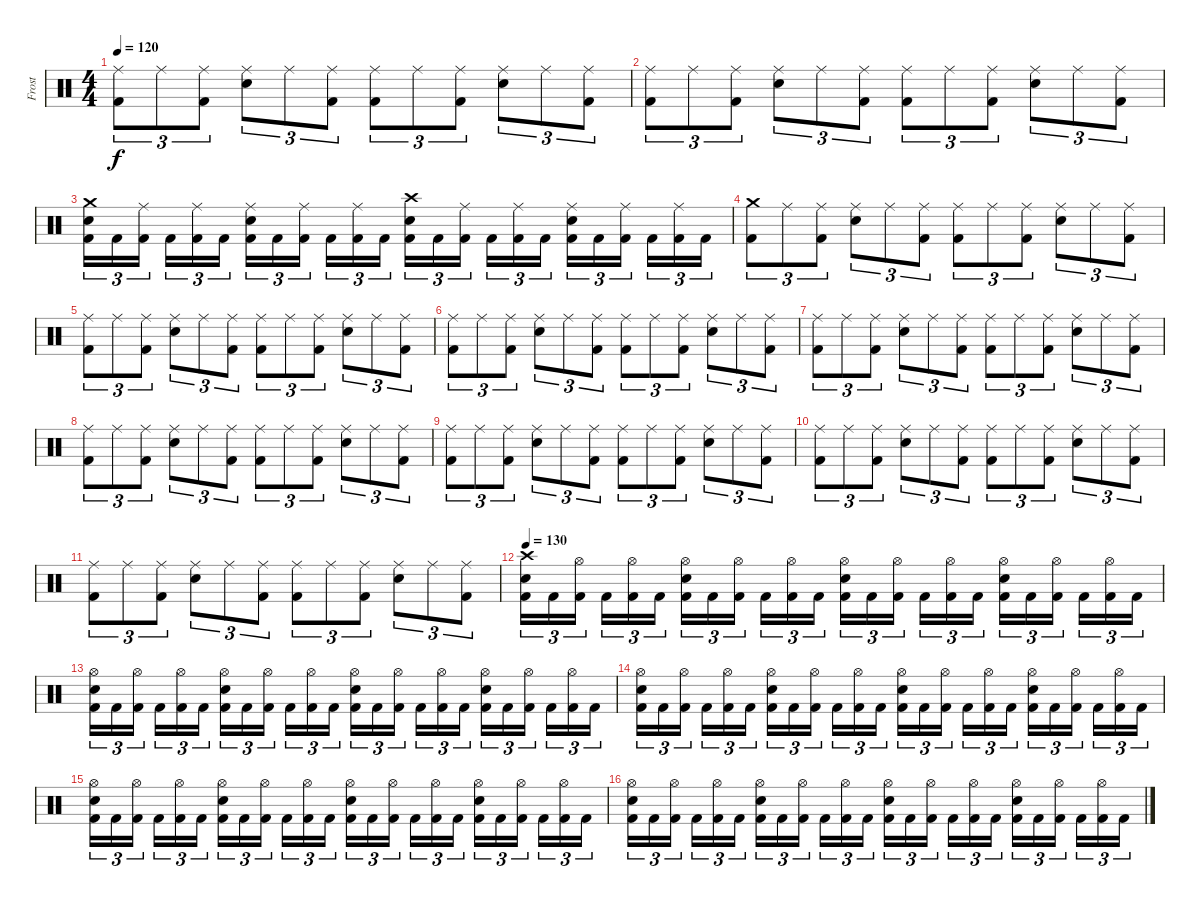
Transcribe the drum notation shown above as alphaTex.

\track ("Frost" "Frost") {instrument percussion}
\staff {score}
\articulation defaults
\ts (4 4)
\tempo 120
\clef neutral
\ks c
("Ride (middle)" "Kick (hit) 2").8{tu (3 2) dy f} "Ride (middle)".8{tu (3 2)} ("Ride (middle)" "Kick (hit) 2").8{tu (3 2)} ("Ride (middle)" "Electric Snare (hit)").8{tu (3 2)} "Ride (middle)".8{tu (3 2)} ("Ride (middle)" "Kick (hit) 2").8{tu (3 2)} ("Ride (middle)" "Kick (hit) 2").8{tu (3 2)} "Ride (middle)".8{tu (3 2)} ("Ride (middle)" "Kick (hit) 2").8{tu (3 2)} ("Ride (middle)" "Electric Snare (hit)").8{tu (3 2)} "Ride (middle)".8{tu (3 2)} ("Ride (middle)" "Kick (hit) 2").8{tu (3 2)} |
("Ride (middle)" "Kick (hit) 2").8{tu (3 2)} "Ride (middle)".8{tu (3 2)} ("Ride (middle)" "Kick (hit) 2").8{tu (3 2)} ("Ride (middle)" "Electric Snare (hit)").8{tu (3 2)} "Ride (middle)".8{tu (3 2)} ("Ride (middle)" "Kick (hit) 2").8{tu (3 2)} ("Ride (middle)" "Kick (hit) 2").8{tu (3 2)} "Ride (middle)".8{tu (3 2)} ("Ride (middle)" "Kick (hit) 2").8{tu (3 2)} ("Ride (middle)" "Electric Snare (hit)").8{tu (3 2)} "Ride (middle)".8{tu (3 2)} ("Ride (middle)" "Kick (hit) 2").8{tu (3 2)} |
("Crash medium (hit)" "Electric Snare (hit)" "Kick (hit) 2").16{tu (3 2)} "Kick (hit) 2".16{tu (3 2)} ("Ride (middle)" "Kick (hit) 2").16{tu (3 2)} "Kick (hit) 2".16{tu (3 2)} ("Ride (middle)" "Kick (hit) 2").16{tu (3 2)} "Kick (hit) 2".16{tu (3 2)} ("Ride (middle)" "Electric Snare (hit)" "Kick (hit) 2").16{tu (3 2)} "Kick (hit) 2".16{tu (3 2)} ("Ride (middle)" "Kick (hit) 2").16{tu (3 2)} "Kick (hit) 2".16{tu (3 2)} ("Ride (middle)" "Kick (hit) 2").16{tu (3 2)} "Kick (hit) 2".16{tu (3 2)} ("Crash high (hit)" "Electric Snare (hit)" "Kick (hit) 2").16{tu (3 2)} "Kick (hit) 2".16{tu (3 2)} ("Ride (middle)" "Kick (hit) 2").16{tu (3 2)} "Kick (hit) 2".16{tu (3 2)} ("Ride (middle)" "Kick (hit) 2").16{tu (3 2)} "Kick (hit) 2".16{tu (3 2)} ("Ride (middle)" "Electric Snare (hit)" "Kick (hit) 2").16{tu (3 2)} "Kick (hit) 2".16{tu (3 2)} ("Ride (middle)" "Kick (hit) 2").16{tu (3 2)} "Kick (hit) 2".16{tu (3 2)} ("Ride (middle)" "Kick (hit) 2").16{tu (3 2)} "Kick (hit) 2".16{tu (3 2)} |
("Crash medium (hit)" "Kick (hit) 2").8{tu (3 2)} "Ride (middle)".8{tu (3 2)} ("Ride (middle)" "Kick (hit) 2").8{tu (3 2)} ("Ride (middle)" "Electric Snare (hit)").8{tu (3 2)} "Ride (middle)".8{tu (3 2)} ("Ride (middle)" "Kick (hit) 2").8{tu (3 2)} ("Ride (middle)" "Kick (hit) 2").8{tu (3 2)} "Ride (middle)".8{tu (3 2)} ("Ride (middle)" "Kick (hit) 2").8{tu (3 2)} ("Ride (middle)" "Electric Snare (hit)").8{tu (3 2)} "Ride (middle)".8{tu (3 2)} ("Ride (middle)" "Kick (hit) 2").8{tu (3 2)} |
("Ride (middle)" "Kick (hit) 2").8{tu (3 2)} "Ride (middle)".8{tu (3 2)} ("Ride (middle)" "Kick (hit) 2").8{tu (3 2)} ("Ride (middle)" "Electric Snare (hit)").8{tu (3 2)} "Ride (middle)".8{tu (3 2)} ("Ride (middle)" "Kick (hit) 2").8{tu (3 2)} ("Ride (middle)" "Kick (hit) 2").8{tu (3 2)} "Ride (middle)".8{tu (3 2)} ("Ride (middle)" "Kick (hit) 2").8{tu (3 2)} ("Ride (middle)" "Electric Snare (hit)").8{tu (3 2)} "Ride (middle)".8{tu (3 2)} ("Ride (middle)" "Kick (hit) 2").8{tu (3 2)} |
("Ride (middle)" "Kick (hit) 2").8{tu (3 2)} "Ride (middle)".8{tu (3 2)} ("Ride (middle)" "Kick (hit) 2").8{tu (3 2)} ("Ride (middle)" "Electric Snare (hit)").8{tu (3 2)} "Ride (middle)".8{tu (3 2)} ("Ride (middle)" "Kick (hit) 2").8{tu (3 2)} ("Ride (middle)" "Kick (hit) 2").8{tu (3 2)} "Ride (middle)".8{tu (3 2)} ("Ride (middle)" "Kick (hit) 2").8{tu (3 2)} ("Ride (middle)" "Electric Snare (hit)").8{tu (3 2)} "Ride (middle)".8{tu (3 2)} ("Ride (middle)" "Kick (hit) 2").8{tu (3 2)} |
("Ride (middle)" "Kick (hit) 2").8{tu (3 2)} "Ride (middle)".8{tu (3 2)} ("Ride (middle)" "Kick (hit) 2").8{tu (3 2)} ("Ride (middle)" "Electric Snare (hit)").8{tu (3 2)} "Ride (middle)".8{tu (3 2)} ("Ride (middle)" "Kick (hit) 2").8{tu (3 2)} ("Ride (middle)" "Kick (hit) 2").8{tu (3 2)} "Ride (middle)".8{tu (3 2)} ("Ride (middle)" "Kick (hit) 2").8{tu (3 2)} ("Ride (middle)" "Electric Snare (hit)").8{tu (3 2)} "Ride (middle)".8{tu (3 2)} ("Ride (middle)" "Kick (hit) 2").8{tu (3 2)} |
("Ride (middle)" "Kick (hit) 2").8{tu (3 2)} "Ride (middle)".8{tu (3 2)} ("Ride (middle)" "Kick (hit) 2").8{tu (3 2)} ("Ride (middle)" "Electric Snare (hit)").8{tu (3 2)} "Ride (middle)".8{tu (3 2)} ("Ride (middle)" "Kick (hit) 2").8{tu (3 2)} ("Ride (middle)" "Kick (hit) 2").8{tu (3 2)} "Ride (middle)".8{tu (3 2)} ("Ride (middle)" "Kick (hit) 2").8{tu (3 2)} ("Ride (middle)" "Electric Snare (hit)").8{tu (3 2)} "Ride (middle)".8{tu (3 2)} ("Ride (middle)" "Kick (hit) 2").8{tu (3 2)} |
("Ride (middle)" "Kick (hit) 2").8{tu (3 2)} "Ride (middle)".8{tu (3 2)} ("Ride (middle)" "Kick (hit) 2").8{tu (3 2)} ("Ride (middle)" "Electric Snare (hit)").8{tu (3 2)} "Ride (middle)".8{tu (3 2)} ("Ride (middle)" "Kick (hit) 2").8{tu (3 2)} ("Ride (middle)" "Kick (hit) 2").8{tu (3 2)} "Ride (middle)".8{tu (3 2)} ("Ride (middle)" "Kick (hit) 2").8{tu (3 2)} ("Ride (middle)" "Electric Snare (hit)").8{tu (3 2)} "Ride (middle)".8{tu (3 2)} ("Ride (middle)" "Kick (hit) 2").8{tu (3 2)} |
("Ride (middle)" "Kick (hit) 2").8{tu (3 2)} "Ride (middle)".8{tu (3 2)} ("Ride (middle)" "Kick (hit) 2").8{tu (3 2)} ("Ride (middle)" "Electric Snare (hit)").8{tu (3 2)} "Ride (middle)".8{tu (3 2)} ("Ride (middle)" "Kick (hit) 2").8{tu (3 2)} ("Ride (middle)" "Kick (hit) 2").8{tu (3 2)} "Ride (middle)".8{tu (3 2)} ("Ride (middle)" "Kick (hit) 2").8{tu (3 2)} ("Ride (middle)" "Electric Snare (hit)").8{tu (3 2)} "Ride (middle)".8{tu (3 2)} ("Ride (middle)" "Kick (hit) 2").8{tu (3 2)} |
("Ride (middle)" "Kick (hit) 2").8{tu (3 2)} "Ride (middle)".8{tu (3 2)} ("Ride (middle)" "Kick (hit) 2").8{tu (3 2)} ("Ride (middle)" "Electric Snare (hit)").8{tu (3 2)} "Ride (middle)".8{tu (3 2)} ("Ride (middle)" "Kick (hit) 2").8{tu (3 2)} ("Ride (middle)" "Kick (hit) 2").8{tu (3 2)} "Ride (middle)".8{tu (3 2)} ("Ride (middle)" "Kick (hit) 2").8{tu (3 2)} ("Ride (middle)" "Electric Snare (hit)").8{tu (3 2)} "Ride (middle)".8{tu (3 2)} ("Ride (middle)" "Kick (hit) 2").8{tu (3 2)} |
\tempo 130
("Crash high (hit)" "Electric Snare (hit)" "Kick (hit) 2").16{tu (3 2)} "Kick (hit) 2".16{tu (3 2)} ("Hi-Hat (open)" "Kick (hit) 2").16{tu (3 2)} "Kick (hit) 2".16{tu (3 2)} ("Hi-Hat (open)" "Kick (hit) 2").16{tu (3 2)} "Kick (hit) 2".16{tu (3 2)} ("Hi-Hat (open)" "Electric Snare (hit)" "Kick (hit) 2").16{tu (3 2)} "Kick (hit) 2".16{tu (3 2)} ("Hi-Hat (open)" "Kick (hit) 2").16{tu (3 2)} "Kick (hit) 2".16{tu (3 2)} ("Hi-Hat (open)" "Kick (hit) 2").16{tu (3 2)} "Kick (hit) 2".16{tu (3 2)} ("Hi-Hat (open)" "Electric Snare (hit)" "Kick (hit) 2").16{tu (3 2)} "Kick (hit) 2".16{tu (3 2)} ("Hi-Hat (open)" "Kick (hit) 2").16{tu (3 2)} "Kick (hit) 2".16{tu (3 2)} ("Hi-Hat (open)" "Kick (hit) 2").16{tu (3 2)} "Kick (hit) 2".16{tu (3 2)} ("Hi-Hat (open)" "Electric Snare (hit)" "Kick (hit) 2").16{tu (3 2)} "Kick (hit) 2".16{tu (3 2)} ("Hi-Hat (open)" "Kick (hit) 2").16{tu (3 2)} "Kick (hit) 2".16{tu (3 2)} ("Hi-Hat (open)" "Kick (hit) 2").16{tu (3 2)} "Kick (hit) 2".16{tu (3 2)} |
("Hi-Hat (open)" "Electric Snare (hit)" "Kick (hit) 2").16{tu (3 2)} "Kick (hit) 2".16{tu (3 2)} ("Hi-Hat (open)" "Kick (hit) 2").16{tu (3 2)} "Kick (hit) 2".16{tu (3 2)} ("Hi-Hat (open)" "Kick (hit) 2").16{tu (3 2)} "Kick (hit) 2".16{tu (3 2)} ("Hi-Hat (open)" "Electric Snare (hit)" "Kick (hit) 2").16{tu (3 2)} "Kick (hit) 2".16{tu (3 2)} ("Hi-Hat (open)" "Kick (hit) 2").16{tu (3 2)} "Kick (hit) 2".16{tu (3 2)} ("Hi-Hat (open)" "Kick (hit) 2").16{tu (3 2)} "Kick (hit) 2".16{tu (3 2)} ("Hi-Hat (open)" "Electric Snare (hit)" "Kick (hit) 2").16{tu (3 2)} "Kick (hit) 2".16{tu (3 2)} ("Hi-Hat (open)" "Kick (hit) 2").16{tu (3 2)} "Kick (hit) 2".16{tu (3 2)} ("Hi-Hat (open)" "Kick (hit) 2").16{tu (3 2)} "Kick (hit) 2".16{tu (3 2)} ("Hi-Hat (open)" "Electric Snare (hit)" "Kick (hit) 2").16{tu (3 2)} "Kick (hit) 2".16{tu (3 2)} ("Hi-Hat (open)" "Kick (hit) 2").16{tu (3 2)} "Kick (hit) 2".16{tu (3 2)} ("Hi-Hat (open)" "Kick (hit) 2").16{tu (3 2)} "Kick (hit) 2".16{tu (3 2)} |
("Hi-Hat (open)" "Electric Snare (hit)" "Kick (hit) 2").16{tu (3 2)} "Kick (hit) 2".16{tu (3 2)} ("Hi-Hat (open)" "Kick (hit) 2").16{tu (3 2)} "Kick (hit) 2".16{tu (3 2)} ("Hi-Hat (open)" "Kick (hit) 2").16{tu (3 2)} "Kick (hit) 2".16{tu (3 2)} ("Hi-Hat (open)" "Electric Snare (hit)" "Kick (hit) 2").16{tu (3 2)} "Kick (hit) 2".16{tu (3 2)} ("Hi-Hat (open)" "Kick (hit) 2").16{tu (3 2)} "Kick (hit) 2".16{tu (3 2)} ("Hi-Hat (open)" "Kick (hit) 2").16{tu (3 2)} "Kick (hit) 2".16{tu (3 2)} ("Hi-Hat (open)" "Electric Snare (hit)" "Kick (hit) 2").16{tu (3 2)} "Kick (hit) 2".16{tu (3 2)} ("Hi-Hat (open)" "Kick (hit) 2").16{tu (3 2)} "Kick (hit) 2".16{tu (3 2)} ("Hi-Hat (open)" "Kick (hit) 2").16{tu (3 2)} "Kick (hit) 2".16{tu (3 2)} ("Hi-Hat (open)" "Electric Snare (hit)" "Kick (hit) 2").16{tu (3 2)} "Kick (hit) 2".16{tu (3 2)} ("Hi-Hat (open)" "Kick (hit) 2").16{tu (3 2)} "Kick (hit) 2".16{tu (3 2)} ("Hi-Hat (open)" "Kick (hit) 2").16{tu (3 2)} "Kick (hit) 2".16{tu (3 2)} |
("Hi-Hat (open)" "Electric Snare (hit)" "Kick (hit) 2").16{tu (3 2)} "Kick (hit) 2".16{tu (3 2)} ("Hi-Hat (open)" "Kick (hit) 2").16{tu (3 2)} "Kick (hit) 2".16{tu (3 2)} ("Hi-Hat (open)" "Kick (hit) 2").16{tu (3 2)} "Kick (hit) 2".16{tu (3 2)} ("Hi-Hat (open)" "Electric Snare (hit)" "Kick (hit) 2").16{tu (3 2)} "Kick (hit) 2".16{tu (3 2)} ("Hi-Hat (open)" "Kick (hit) 2").16{tu (3 2)} "Kick (hit) 2".16{tu (3 2)} ("Hi-Hat (open)" "Kick (hit) 2").16{tu (3 2)} "Kick (hit) 2".16{tu (3 2)} ("Hi-Hat (open)" "Electric Snare (hit)" "Kick (hit) 2").16{tu (3 2)} "Kick (hit) 2".16{tu (3 2)} ("Hi-Hat (open)" "Kick (hit) 2").16{tu (3 2)} "Kick (hit) 2".16{tu (3 2)} ("Hi-Hat (open)" "Kick (hit) 2").16{tu (3 2)} "Kick (hit) 2".16{tu (3 2)} ("Hi-Hat (open)" "Electric Snare (hit)" "Kick (hit) 2").16{tu (3 2)} "Kick (hit) 2".16{tu (3 2)} ("Hi-Hat (open)" "Kick (hit) 2").16{tu (3 2)} "Kick (hit) 2".16{tu (3 2)} ("Hi-Hat (open)" "Kick (hit) 2").16{tu (3 2)} "Kick (hit) 2".16{tu (3 2)} |
("Hi-Hat (open)" "Electric Snare (hit)" "Kick (hit) 2").16{tu (3 2)} "Kick (hit) 2".16{tu (3 2)} ("Hi-Hat (open)" "Kick (hit) 2").16{tu (3 2)} "Kick (hit) 2".16{tu (3 2)} ("Hi-Hat (open)" "Kick (hit) 2").16{tu (3 2)} "Kick (hit) 2".16{tu (3 2)} ("Hi-Hat (open)" "Electric Snare (hit)" "Kick (hit) 2").16{tu (3 2)} "Kick (hit) 2".16{tu (3 2)} ("Hi-Hat (open)" "Kick (hit) 2").16{tu (3 2)} "Kick (hit) 2".16{tu (3 2)} ("Hi-Hat (open)" "Kick (hit) 2").16{tu (3 2)} "Kick (hit) 2".16{tu (3 2)} ("Hi-Hat (open)" "Electric Snare (hit)" "Kick (hit) 2").16{tu (3 2)} "Kick (hit) 2".16{tu (3 2)} ("Hi-Hat (open)" "Kick (hit) 2").16{tu (3 2)} "Kick (hit) 2".16{tu (3 2)} ("Hi-Hat (open)" "Kick (hit) 2").16{tu (3 2)} "Kick (hit) 2".16{tu (3 2)} ("Hi-Hat (open)" "Electric Snare (hit)" "Kick (hit) 2").16{tu (3 2)} "Kick (hit) 2".16{tu (3 2)} ("Hi-Hat (open)" "Kick (hit) 2").16{tu (3 2)} "Kick (hit) 2".16{tu (3 2)} ("Hi-Hat (open)" "Kick (hit) 2").16{tu (3 2)} "Kick (hit) 2".16{tu (3 2)}
